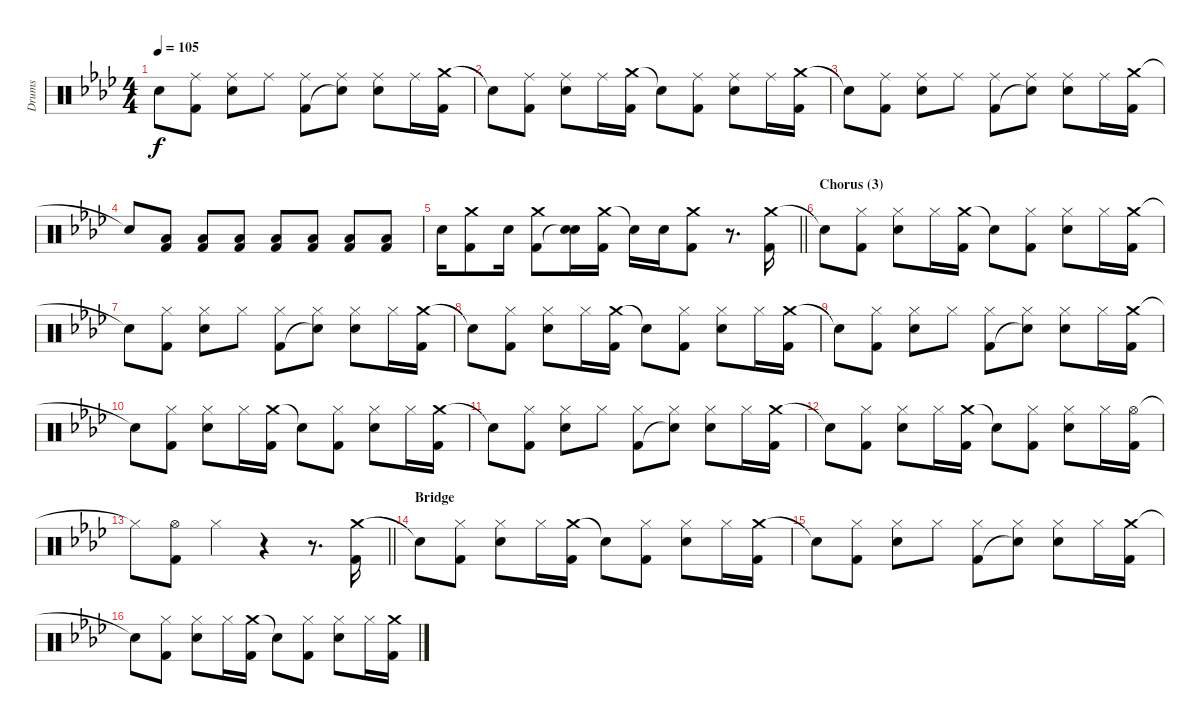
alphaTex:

\track ("Drums" "Drums") {instrument percussion}
\staff {score}
\articulation defaults
\ts (4 4)
\tempo 105
\clef neutral
\ks fminor "Snare (hit)"{t}.8{dy f}
("Ride (middle)" "Kick (hit) 2").8 ("Ride (middle)" "Electric Snare (hit)").8 "Ride (middle)".8 ("Ride (middle)" "Kick (hit) 2").8 ("Ride (middle)" "Snare (hit)"{t}).8 ("Ride (middle)" "Electric Snare (hit)").8 "Ride (middle)".16 ("Crash medium (hit)" "Kick (hit) 2").16 |
"Snare (hit)"{t}.8 ("Ride (middle)" "Kick (hit) 2").8 ("Ride (middle)" "Electric Snare (hit)").8 "Ride (middle)".16 ("Crash medium (hit)" "Kick (hit) 2").16 "Snare (hit)"{t}.8 ("Ride (middle)" "Kick (hit) 2").8 ("Ride (middle)" "Electric Snare (hit)").8 "Ride (middle)".16 ("Crash medium (hit)" "Kick (hit) 2").16 |
"Snare (hit)"{t}.8 ("Ride (middle)" "Kick (hit) 2").8 ("Ride (middle)" "Electric Snare (hit)").8 "Ride (middle)".8 ("Ride (middle)" "Kick (hit) 2").8 ("Ride (middle)" "Snare (hit)"{t}).8 ("Ride (middle)" "Electric Snare (hit)").8 "Ride (middle)".16 ("Crash medium (hit)" "Kick (hit) 2").16 |
"Snare (hit)"{t}.8 ("Low Floor Tom (hit)" "Kick (hit) 2").8 ("Low Floor Tom (hit)" "Kick (hit) 2").8 ("Low Floor Tom (hit)" "Kick (hit) 2").8 ("Low Floor Tom (hit)" "Kick (hit) 2").8 ("Low Floor Tom (hit)" "Kick (hit) 2").8 ("Low Floor Tom (hit)" "Kick (hit) 2").8 ("Low Floor Tom (hit)" "Kick (hit) 2").8 |
\barLineRight lightlight "Electric Snare (hit)".16
("Crash medium (hit)" "Kick (hit) 2").8 "Electric Snare (hit)".16 ("Crash medium (hit)" "Kick (hit) 2").8 ("Electric Snare (hit)" "Snare (hit)"{t}).16 ("Crash medium (hit)" "Kick (hit) 2").16 "Snare (hit)"{t}.16 "Electric Snare (hit)".16 ("Crash medium (hit)" "Kick (hit) 2").8 r.8{d} ("Crash medium (hit)" "Kick (hit) 2").16 |
\section ("" "Chorus (3)")
"Snare (hit)"{t}.8 ("Hi-Hat (closed)" "Kick (hit) 2").8 ("Hi-Hat (closed)" "Electric Snare (hit)").8 "Hi-Hat (closed)".16 ("Crash medium (hit)" "Kick (hit) 2").16 "Snare (hit)"{t}.8 ("Hi-Hat (closed)" "Kick (hit) 2").8 ("Hi-Hat (closed)" "Electric Snare (hit)").8 "Hi-Hat (closed)".16 ("Crash medium (hit)" "Kick (hit) 2").16 |
"Snare (hit)"{t}.8 ("Hi-Hat (closed)" "Kick (hit) 2").8 ("Hi-Hat (closed)" "Electric Snare (hit)").8 "Hi-Hat (closed)".8 ("Hi-Hat (closed)" "Kick (hit) 2").8 ("Hi-Hat (closed)" "Snare (hit)"{t}).8 ("Hi-Hat (closed)" "Electric Snare (hit)").8 "Hi-Hat (closed)".16 ("Crash medium (hit)" "Kick (hit) 2").16 |
"Snare (hit)"{t}.8 ("Hi-Hat (closed)" "Kick (hit) 2").8 ("Hi-Hat (closed)" "Electric Snare (hit)").8 "Hi-Hat (closed)".16 ("Crash medium (hit)" "Kick (hit) 2").16 "Snare (hit)"{t}.8 ("Hi-Hat (closed)" "Kick (hit) 2").8 ("Hi-Hat (closed)" "Electric Snare (hit)").8 "Hi-Hat (closed)".16 ("Crash medium (hit)" "Kick (hit) 2").16 |
"Snare (hit)"{t}.8 ("Hi-Hat (closed)" "Kick (hit) 2").8 ("Hi-Hat (closed)" "Electric Snare (hit)").8 "Hi-Hat (closed)".8 ("Hi-Hat (closed)" "Kick (hit) 2").8 ("Hi-Hat (closed)" "Snare (hit)"{t}).8 ("Hi-Hat (closed)" "Electric Snare (hit)").8 "Hi-Hat (closed)".16 ("Crash medium (hit)" "Kick (hit) 2").16 |
"Snare (hit)"{t}.8 ("Hi-Hat (closed)" "Kick (hit) 2").8 ("Hi-Hat (closed)" "Electric Snare (hit)").8 "Hi-Hat (closed)".16 ("Crash medium (hit)" "Kick (hit) 2").16 "Snare (hit)"{t}.8 ("Hi-Hat (closed)" "Kick (hit) 2").8 ("Hi-Hat (closed)" "Electric Snare (hit)").8 "Hi-Hat (closed)".16 ("Crash medium (hit)" "Kick (hit) 2").16 |
"Snare (hit)"{t}.8 ("Hi-Hat (closed)" "Kick (hit) 2").8 ("Hi-Hat (closed)" "Electric Snare (hit)").8 "Hi-Hat (closed)".8 ("Hi-Hat (closed)" "Kick (hit) 2").8 ("Hi-Hat (closed)" "Snare (hit)"{t}).8 ("Hi-Hat (closed)" "Electric Snare (hit)").8 "Hi-Hat (closed)".16 ("Crash medium (hit)" "Kick (hit) 2").16 |
"Snare (hit)"{t}.8 ("Hi-Hat (closed)" "Kick (hit) 2").8 ("Hi-Hat (closed)" "Electric Snare (hit)").8 "Hi-Hat (closed)".16 ("Crash medium (hit)" "Kick (hit) 2").16 "Snare (hit)"{t}.8 ("Hi-Hat (closed)" "Kick (hit) 2").8 ("Hi-Hat (closed)" "Electric Snare (hit)").8 "Hi-Hat (closed)".16 ("Hi-Hat (open)" "Kick (hit) 2").16 |
\barLineRight lightlight "Hi-Hat (closed)"{t}.8
("Hi-Hat (open)" "Kick (hit) 2").8 "Hi-Hat (closed)".4 r.4 r.8{d} ("Crash medium (hit)" "Kick (hit) 2").16 |
\section ("" "Bridge")
"Snare (hit)"{t}.8 ("Hi-Hat (closed)" "Kick (hit) 2").8 ("Hi-Hat (closed)" "Electric Snare (hit)").8 "Hi-Hat (closed)".16 ("Crash medium (hit)" "Kick (hit) 2").16 "Snare (hit)"{t}.8 ("Hi-Hat (closed)" "Kick (hit) 2").8 ("Hi-Hat (closed)" "Electric Snare (hit)").8 "Hi-Hat (closed)".16 ("Crash medium (hit)" "Kick (hit) 2").16 |
"Snare (hit)"{t}.8 ("Hi-Hat (closed)" "Kick (hit) 2").8 ("Hi-Hat (closed)" "Electric Snare (hit)").8 "Hi-Hat (closed)".8 ("Hi-Hat (closed)" "Kick (hit) 2").8 ("Hi-Hat (closed)" "Snare (hit)"{t}).8 ("Hi-Hat (closed)" "Electric Snare (hit)").8 "Hi-Hat (closed)".16 ("Crash medium (hit)" "Kick (hit) 2").16 |
"Snare (hit)"{t}.8 ("Hi-Hat (closed)" "Kick (hit) 2").8 ("Hi-Hat (closed)" "Electric Snare (hit)").8 "Hi-Hat (closed)".16 ("Crash medium (hit)" "Kick (hit) 2").16 "Snare (hit)"{t}.8 ("Hi-Hat (closed)" "Kick (hit) 2").8 ("Hi-Hat (closed)" "Electric Snare (hit)").8 "Hi-Hat (closed)".16 ("Crash medium (hit)" "Kick (hit) 2").16
